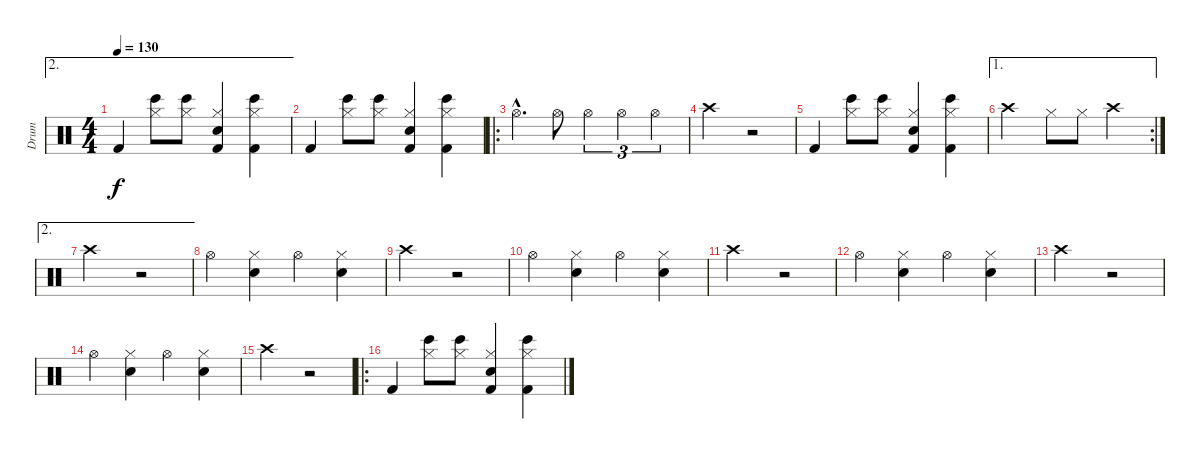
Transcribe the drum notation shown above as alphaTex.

\track ("Drum" "Drum") {instrument percussion}
\staff {score}
\articulation defaults
\ae 2
\ts (4 4)
\tempo 130
\clef neutral
\ks c "Kick (hit) 2".4{dy f}
("Hi-Hat (closed)" "Bongo High (hit)").8 ("Hi-Hat (closed)" "Bongo High (hit)").8 ("Hi-Hat (closed)" "Snare (hit) 2" "Kick (hit) 2").4 ("Hi-Hat (closed)" "Kick (hit) 2" "Bongo High (hit)").4 |
"Kick (hit) 2".4 ("Hi-Hat (closed)" "Bongo High (hit)").8 ("Hi-Hat (closed)" "Bongo High (hit)").8 ("Hi-Hat (closed)" "Snare (hit) 2" "Kick (hit) 2").4 ("Hi-Hat (closed)" "Kick (hit) 2" "Bongo High (hit)").4 |
\ro "Hi-Hat (open)"{hac}.4{d} "Hi-Hat (open)".8 "Hi-Hat (open)".4{tu (3 2)} "Hi-Hat (open)".4{tu (3 2)} "Hi-Hat (open)".4{tu (3 2)}
|
"Crash high (hit)".2 r.2 |
"Kick (hit) 2".4 ("Hi-Hat (closed)" "Bongo High (hit)").8 ("Hi-Hat (closed)" "Bongo High (hit)").8 ("Hi-Hat (closed)" "Snare (hit) 2" "Kick (hit) 2").4 ("Hi-Hat (closed)" "Kick (hit) 2" "Bongo High (hit)").4 |
\ae 1
\rc 2 "Crash high (hit)".2 "Hi-Hat (closed)".8 "Hi-Hat (closed)".8 "Crash high (hit)".4
|
\ae 2 "Crash high (hit)".2
r.2 |
"Hi-Hat (open)".4 ("Hi-Hat (closed)" "Snare (hit) 2").4 "Hi-Hat (open)".4 ("Hi-Hat (closed)" "Snare (hit) 2").4 |
"Crash high (hit)".2 r.2 |
"Hi-Hat (open)".4 ("Hi-Hat (closed)" "Snare (hit) 2").4 "Hi-Hat (open)".4 ("Hi-Hat (closed)" "Snare (hit) 2").4 |
"Crash high (hit)".2 r.2 |
"Hi-Hat (open)".4 ("Hi-Hat (closed)" "Snare (hit) 2").4 "Hi-Hat (open)".4 ("Hi-Hat (closed)" "Snare (hit) 2").4 |
"Crash high (hit)".2 r.2 |
"Hi-Hat (open)".4 ("Hi-Hat (closed)" "Snare (hit) 2").4 "Hi-Hat (open)".4 ("Hi-Hat (closed)" "Snare (hit) 2").4 |
"Crash high (hit)".2 r.2 |
\ro "Kick (hit) 2".4
("Hi-Hat (closed)" "Bongo High (hit)").8 ("Hi-Hat (closed)" "Bongo High (hit)").8 ("Hi-Hat (closed)" "Snare (hit) 2" "Kick (hit) 2").4 ("Hi-Hat (closed)" "Kick (hit) 2" "Bongo High (hit)").4
